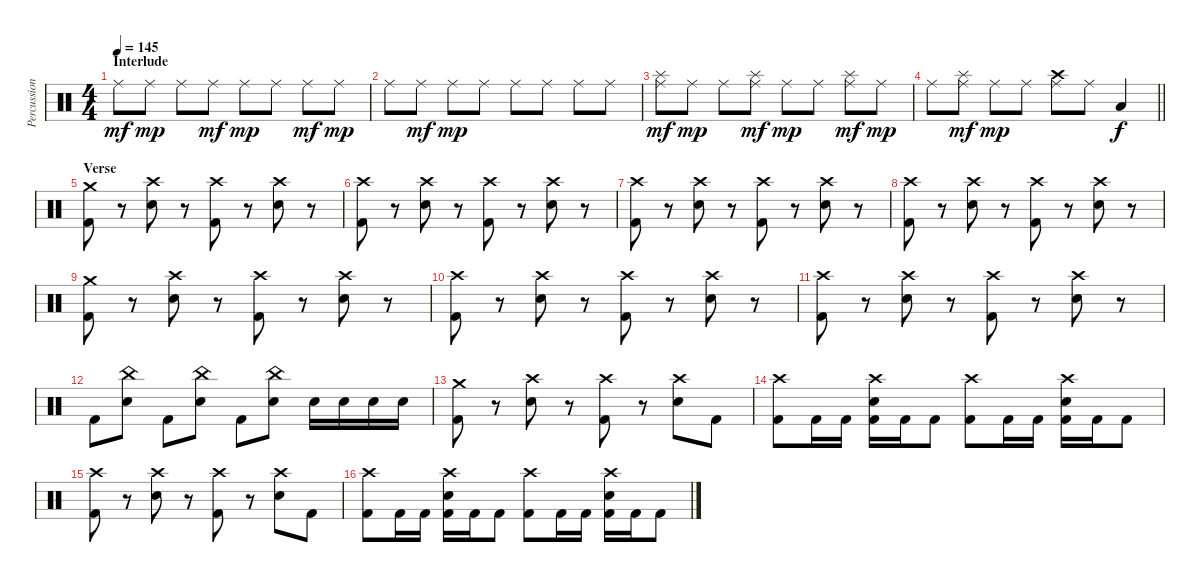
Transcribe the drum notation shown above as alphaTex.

\track ("Percussion" "Percussion") {instrument percussion}
\staff {score}
\articulation defaults
\ts (4 4)
\section ("" "Interlude")
\tempo 145
\clef neutral
\ks c "Ride (middle)".8{dy mf} "Ride (middle)".8{dy mp} "Ride (middle)".8 "Ride (middle)".8{dy mf} "Ride (middle)".8{dy mp} "Ride (middle)".8 "Ride (middle)".8{dy mf} "Ride (middle)".8{dy mp}
|
"Ride (middle)".8 "Ride (middle)".8{dy mf} "Ride (middle)".8{dy mp} "Ride (middle)".8 "Ride (middle)".8 "Ride (middle)".8 "Ride (middle)".8 "Ride (middle)".8 |
("Splash (hit)" "Ride (middle)").8{dy mf} "Ride (middle)".8{dy mp} "Ride (middle)".8 ("Splash (hit)" "Ride (middle)").8{dy mf} "Ride (middle)".8{dy mp} "Ride (middle)".8 ("Splash (hit)" "Ride (middle)").8{dy mf} "Ride (middle)".8{dy mp} |
\barLineRight lightlight "Ride (middle)".8
("Splash (hit)" "Ride (middle)").8{dy mf} "Ride (middle)".8{dy mp} "Ride (middle)".8 ("Crash high (hit)" "Ride (middle)").8 "Ride (middle)".8 "Low Floor Tom (hit)".4{dy f} |
\section ("" "Verse")
("Crash medium (hit)" "Kick (hit) 2").8 r.8 ("Crash high (hit)" "Snare (hit) 2").8 r.8 ("Crash high (hit)" "Kick (hit) 2").8 r.8 ("Crash high (hit)" "Snare (hit) 2").8 r.8 |
("Crash high (hit)" "Kick (hit) 2").8 r.8 ("Crash high (hit)" "Snare (hit) 2").8 r.8 ("Crash high (hit)" "Kick (hit) 2").8 r.8 ("Crash high (hit)" "Snare (hit) 2").8 r.8 |
("Crash high (hit)" "Kick (hit) 2").8 r.8 ("Crash high (hit)" "Snare (hit) 2").8 r.8 ("Crash high (hit)" "Kick (hit) 2").8 r.8 ("Crash high (hit)" "Snare (hit) 2").8 r.8 |
("Crash high (hit)" "Kick (hit) 2").8 r.8 ("Crash high (hit)" "Snare (hit) 2").8 r.8 ("Crash high (hit)" "Kick (hit) 2").8 r.8 ("Crash high (hit)" "Snare (hit) 2").8 r.8 |
("Crash medium (hit)" "Kick (hit) 2").8 r.8 ("Crash high (hit)" "Snare (hit) 2").8 r.8 ("Crash high (hit)" "Kick (hit) 2").8 r.8 ("Crash high (hit)" "Snare (hit) 2").8 r.8 |
("Crash high (hit)" "Kick (hit) 2").8 r.8 ("Crash high (hit)" "Snare (hit) 2").8 r.8 ("Crash high (hit)" "Kick (hit) 2").8 r.8 ("Crash high (hit)" "Snare (hit) 2").8 r.8 |
("Crash high (hit)" "Kick (hit) 2").8 r.8 ("Crash high (hit)" "Snare (hit) 2").8 r.8 ("Crash high (hit)" "Kick (hit) 2").8 r.8 ("Crash high (hit)" "Snare (hit) 2").8 r.8 |
"Kick (hit) 2".8 ("China (hit)" "Snare (hit) 2").8 "Kick (hit) 2".8 ("China (hit)" "Snare (hit) 2").8 "Kick (hit) 2".8 ("China (hit)" "Snare (hit) 2").8 "Snare (hit) 2".16 "Snare (hit) 2".16 "Snare (hit) 2".16 "Snare (hit) 2".16 |
("Crash medium (hit)" "Kick (hit) 2").8 r.8 ("Crash high (hit)" "Snare (hit) 2").8 r.8 ("Crash high (hit)" "Kick (hit) 2").8 r.8 ("Crash high (hit)" "Snare (hit) 2").8 "Kick (hit) 2".8 |
("Crash high (hit)" "Kick (hit) 2").8 "Kick (hit) 2".16 "Kick (hit) 2".16 ("Crash high (hit)" "Snare (hit) 2" "Kick (hit) 2").16 "Kick (hit) 2".16 "Kick (hit) 2".8 ("Crash high (hit)" "Kick (hit) 2").8 "Kick (hit) 2".16 "Kick (hit) 2".16 ("Crash high (hit)" "Snare (hit) 2" "Kick (hit) 2").16 "Kick (hit) 2".16 "Kick (hit) 2".8 |
("Crash high (hit)" "Kick (hit) 2").8 r.8 ("Crash high (hit)" "Snare (hit) 2").8 r.8 ("Crash high (hit)" "Kick (hit) 2").8 r.8 ("Crash high (hit)" "Snare (hit) 2").8 "Kick (hit) 2".8 |
("Crash high (hit)" "Kick (hit) 2").8 "Kick (hit) 2".16 "Kick (hit) 2".16 ("Crash high (hit)" "Snare (hit) 2" "Kick (hit) 2").16 "Kick (hit) 2".16 "Kick (hit) 2".8 ("Crash high (hit)" "Kick (hit) 2").8 "Kick (hit) 2".16 "Kick (hit) 2".16 ("Crash high (hit)" "Snare (hit) 2" "Kick (hit) 2").16 "Kick (hit) 2".16 "Kick (hit) 2".8
